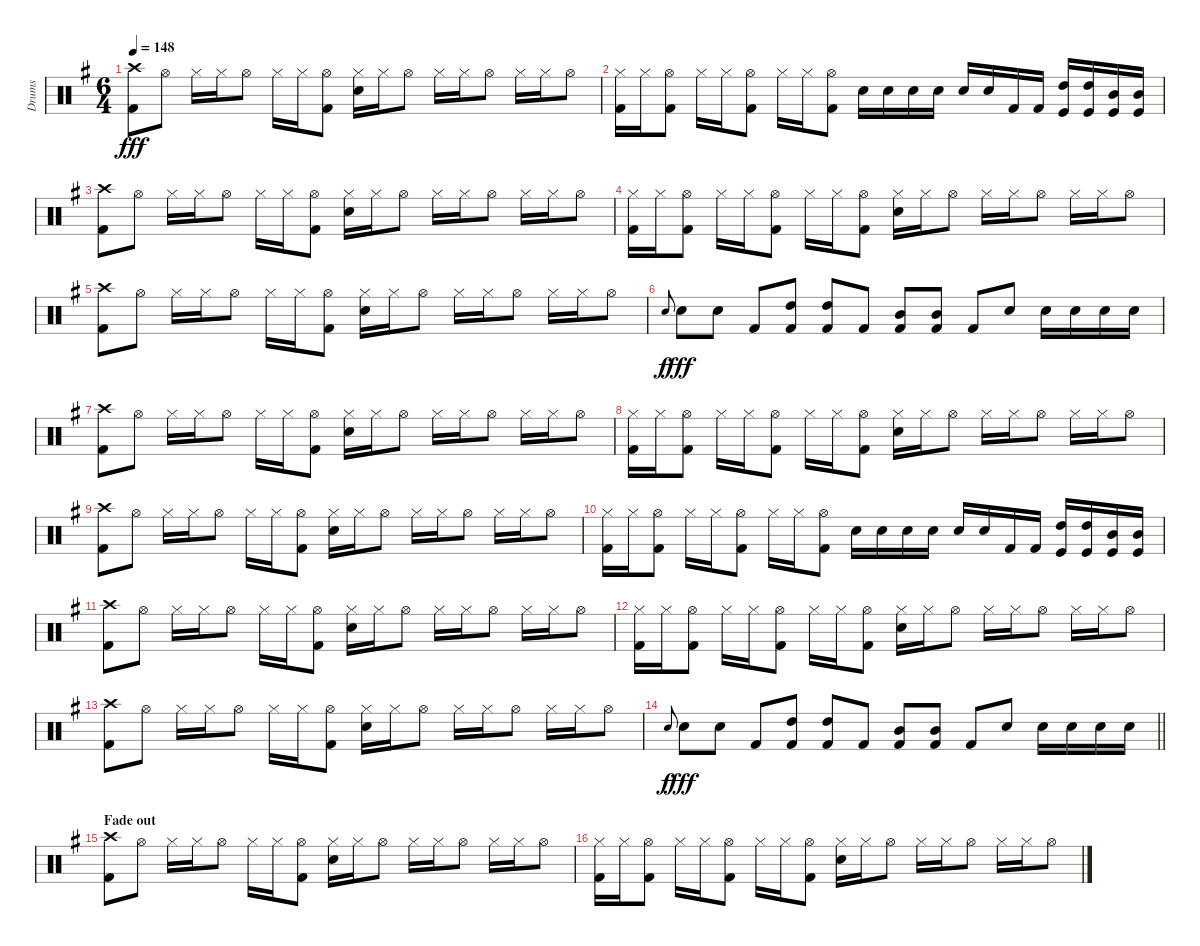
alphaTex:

\track ("Drums" "Drums") {instrument percussion}
\staff {score}
\articulation defaults
\ts (6 4)
\tempo 148
\clef neutral
\ks g
("Crash high (hit)" "Kick (hit) 2").8{dy fff} "Hi-Hat (open)".8 "Hi-Hat (closed)".16 "Hi-Hat (closed)".16 "Hi-Hat (open)".8 "Hi-Hat (closed)".16 "Hi-Hat (closed)".16 ("Hi-Hat (open)" "Kick (hit) 2").8 ("Hi-Hat (closed)" "Electric Snare (hit)").16 "Hi-Hat (closed)".16 "Hi-Hat (open)".8 "Hi-Hat (closed)".16 "Hi-Hat (closed)".16 "Hi-Hat (open)".8 "Hi-Hat (closed)".16 "Hi-Hat (closed)".16 "Hi-Hat (open)".8 |
("Hi-Hat (closed)" "Kick (hit) 2").16 "Hi-Hat (closed)".16 ("Hi-Hat (open)" "Kick (hit) 2").8 "Hi-Hat (closed)".16 "Hi-Hat (closed)".16 ("Hi-Hat (open)" "Kick (hit) 2").8 "Hi-Hat (closed)".16 "Hi-Hat (closed)".16 ("Hi-Hat (open)" "Kick (hit) 2").8 "Electric Snare (hit)".16 "Electric Snare (hit)".16 "Electric Snare (hit)".16 "Electric Snare (hit)".16 "Electric Snare (hit)".16 "Electric Snare (hit)".16 "Kick (hit) 2".16 "Kick (hit) 2".16 ("High Tom (hit)" "Kick (hit)").16 ("High Tom (hit)" "Kick (hit)").16 ("Mid Tom (hit)" "Kick (hit)").16 ("Mid Tom (hit)" "Kick (hit)").16 |
("Crash high (hit)" "Kick (hit) 2").8 "Hi-Hat (open)".8 "Hi-Hat (closed)".16 "Hi-Hat (closed)".16 "Hi-Hat (open)".8 "Hi-Hat (closed)".16 "Hi-Hat (closed)".16 ("Hi-Hat (open)" "Kick (hit) 2").8 ("Hi-Hat (closed)" "Electric Snare (hit)").16 "Hi-Hat (closed)".16 "Hi-Hat (open)".8 "Hi-Hat (closed)".16 "Hi-Hat (closed)".16 "Hi-Hat (open)".8 "Hi-Hat (closed)".16 "Hi-Hat (closed)".16 "Hi-Hat (open)".8 |
("Hi-Hat (closed)" "Kick (hit) 2").16 "Hi-Hat (closed)".16 ("Hi-Hat (open)" "Kick (hit) 2").8 "Hi-Hat (closed)".16 "Hi-Hat (closed)".16 ("Hi-Hat (open)" "Kick (hit) 2").8 "Hi-Hat (closed)".16 "Hi-Hat (closed)".16 ("Hi-Hat (open)" "Kick (hit) 2").8 ("Hi-Hat (closed)" "Electric Snare (hit)").16 "Hi-Hat (closed)".16 "Hi-Hat (open)".8 "Hi-Hat (closed)".16 "Hi-Hat (closed)".16 "Hi-Hat (open)".8 "Hi-Hat (closed)".16 "Hi-Hat (closed)".16 "Hi-Hat (open)".8 |
("Crash high (hit)" "Kick (hit) 2").8 "Hi-Hat (open)".8 "Hi-Hat (closed)".16 "Hi-Hat (closed)".16 "Hi-Hat (open)".8 "Hi-Hat (closed)".16 "Hi-Hat (closed)".16 ("Hi-Hat (open)" "Kick (hit) 2").8 ("Hi-Hat (closed)" "Electric Snare (hit)").16 "Hi-Hat (closed)".16 "Hi-Hat (open)".8 "Hi-Hat (closed)".16 "Hi-Hat (closed)".16 "Hi-Hat (open)".8 "Hi-Hat (closed)".16 "Hi-Hat (closed)".16 "Hi-Hat (open)".8 |
"Electric Snare (hit)".8{gr onbeat dy f} "Electric Snare (hit)".8{dy fff} "Electric Snare (hit)".8 "Kick (hit) 2".8 ("High Tom (hit)" "Kick (hit) 2").8 ("High Tom (hit)" "Kick (hit) 2").8 "Kick (hit) 2".8 ("Mid Tom (hit)" "Kick (hit) 2").8 ("Mid Tom (hit)" "Kick (hit) 2").8 "Kick (hit) 2".8 "Electric Snare (hit)".8 "Electric Snare (hit)".16 "Electric Snare (hit)".16 "Electric Snare (hit)".16 "Electric Snare (hit)".16 |
("Crash high (hit)" "Kick (hit) 2").8 "Hi-Hat (open)".8 "Hi-Hat (closed)".16 "Hi-Hat (closed)".16 "Hi-Hat (open)".8 "Hi-Hat (closed)".16 "Hi-Hat (closed)".16 ("Hi-Hat (open)" "Kick (hit) 2").8 ("Hi-Hat (closed)" "Electric Snare (hit)").16 "Hi-Hat (closed)".16 "Hi-Hat (open)".8 "Hi-Hat (closed)".16 "Hi-Hat (closed)".16 "Hi-Hat (open)".8 "Hi-Hat (closed)".16 "Hi-Hat (closed)".16 "Hi-Hat (open)".8 |
("Hi-Hat (closed)" "Kick (hit) 2").16 "Hi-Hat (closed)".16 ("Hi-Hat (open)" "Kick (hit) 2").8 "Hi-Hat (closed)".16 "Hi-Hat (closed)".16 ("Hi-Hat (open)" "Kick (hit) 2").8 "Hi-Hat (closed)".16 "Hi-Hat (closed)".16 ("Hi-Hat (open)" "Kick (hit) 2").8 ("Hi-Hat (closed)" "Electric Snare (hit)").16 "Hi-Hat (closed)".16 "Hi-Hat (open)".8 "Hi-Hat (closed)".16 "Hi-Hat (closed)".16 "Hi-Hat (open)".8 "Hi-Hat (closed)".16 "Hi-Hat (closed)".16 "Hi-Hat (open)".8 |
("Crash high (hit)" "Kick (hit) 2").8 "Hi-Hat (open)".8 "Hi-Hat (closed)".16 "Hi-Hat (closed)".16 "Hi-Hat (open)".8 "Hi-Hat (closed)".16 "Hi-Hat (closed)".16 ("Hi-Hat (open)" "Kick (hit) 2").8 ("Hi-Hat (closed)" "Electric Snare (hit)").16 "Hi-Hat (closed)".16 "Hi-Hat (open)".8 "Hi-Hat (closed)".16 "Hi-Hat (closed)".16 "Hi-Hat (open)".8 "Hi-Hat (closed)".16 "Hi-Hat (closed)".16 "Hi-Hat (open)".8 |
("Hi-Hat (closed)" "Kick (hit) 2").16 "Hi-Hat (closed)".16 ("Hi-Hat (open)" "Kick (hit) 2").8 "Hi-Hat (closed)".16 "Hi-Hat (closed)".16 ("Hi-Hat (open)" "Kick (hit) 2").8 "Hi-Hat (closed)".16 "Hi-Hat (closed)".16 ("Hi-Hat (open)" "Kick (hit) 2").8 "Electric Snare (hit)".16 "Electric Snare (hit)".16 "Electric Snare (hit)".16 "Electric Snare (hit)".16 "Electric Snare (hit)".16 "Electric Snare (hit)".16 "Kick (hit) 2".16 "Kick (hit) 2".16 ("High Tom (hit)" "Kick (hit)").16 ("High Tom (hit)" "Kick (hit)").16 ("Mid Tom (hit)" "Kick (hit)").16 ("Mid Tom (hit)" "Kick (hit)").16 |
("Crash high (hit)" "Kick (hit) 2").8 "Hi-Hat (open)".8 "Hi-Hat (closed)".16 "Hi-Hat (closed)".16 "Hi-Hat (open)".8 "Hi-Hat (closed)".16 "Hi-Hat (closed)".16 ("Hi-Hat (open)" "Kick (hit) 2").8 ("Hi-Hat (closed)" "Electric Snare (hit)").16 "Hi-Hat (closed)".16 "Hi-Hat (open)".8 "Hi-Hat (closed)".16 "Hi-Hat (closed)".16 "Hi-Hat (open)".8 "Hi-Hat (closed)".16 "Hi-Hat (closed)".16 "Hi-Hat (open)".8 |
("Hi-Hat (closed)" "Kick (hit) 2").16 "Hi-Hat (closed)".16 ("Hi-Hat (open)" "Kick (hit) 2").8 "Hi-Hat (closed)".16 "Hi-Hat (closed)".16 ("Hi-Hat (open)" "Kick (hit) 2").8 "Hi-Hat (closed)".16 "Hi-Hat (closed)".16 ("Hi-Hat (open)" "Kick (hit) 2").8 ("Hi-Hat (closed)" "Electric Snare (hit)").16 "Hi-Hat (closed)".16 "Hi-Hat (open)".8 "Hi-Hat (closed)".16 "Hi-Hat (closed)".16 "Hi-Hat (open)".8 "Hi-Hat (closed)".16 "Hi-Hat (closed)".16 "Hi-Hat (open)".8 |
("Crash high (hit)" "Kick (hit) 2").8 "Hi-Hat (open)".8 "Hi-Hat (closed)".16 "Hi-Hat (closed)".16 "Hi-Hat (open)".8 "Hi-Hat (closed)".16 "Hi-Hat (closed)".16 ("Hi-Hat (open)" "Kick (hit) 2").8 ("Hi-Hat (closed)" "Electric Snare (hit)").16 "Hi-Hat (closed)".16 "Hi-Hat (open)".8 "Hi-Hat (closed)".16 "Hi-Hat (closed)".16 "Hi-Hat (open)".8 "Hi-Hat (closed)".16 "Hi-Hat (closed)".16 "Hi-Hat (open)".8 |
\barLineRight lightlight "Electric Snare (hit)".8{gr onbeat dy f} "Electric Snare (hit)".8{dy fff} "Electric Snare (hit)".8 "Kick (hit) 2".8
("High Tom (hit)" "Kick (hit) 2").8 ("High Tom (hit)" "Kick (hit) 2").8 "Kick (hit) 2".8 ("Mid Tom (hit)" "Kick (hit) 2").8 ("Mid Tom (hit)" "Kick (hit) 2").8 "Kick (hit) 2".8 "Electric Snare (hit)".8 "Electric Snare (hit)".16 "Electric Snare (hit)".16 "Electric Snare (hit)".16 "Electric Snare (hit)".16 |
\section ("" "Fade out")
("Crash high (hit)" "Kick (hit) 2").8 "Hi-Hat (open)".8 "Hi-Hat (closed)".16 "Hi-Hat (closed)".16 "Hi-Hat (open)".8 "Hi-Hat (closed)".16 "Hi-Hat (closed)".16 ("Hi-Hat (open)" "Kick (hit) 2").8 ("Hi-Hat (closed)" "Electric Snare (hit)").16 "Hi-Hat (closed)".16 "Hi-Hat (open)".8 "Hi-Hat (closed)".16 "Hi-Hat (closed)".16 "Hi-Hat (open)".8 "Hi-Hat (closed)".16 "Hi-Hat (closed)".16 "Hi-Hat (open)".8 |
("Hi-Hat (closed)" "Kick (hit) 2").16 "Hi-Hat (closed)".16 ("Hi-Hat (open)" "Kick (hit) 2").8 "Hi-Hat (closed)".16 "Hi-Hat (closed)".16 ("Hi-Hat (open)" "Kick (hit) 2").8 "Hi-Hat (closed)".16 "Hi-Hat (closed)".16 ("Hi-Hat (open)" "Kick (hit) 2").8 ("Hi-Hat (closed)" "Electric Snare (hit)").16 "Hi-Hat (closed)".16 "Hi-Hat (open)".8 "Hi-Hat (closed)".16 "Hi-Hat (closed)".16 "Hi-Hat (open)".8 "Hi-Hat (closed)".16 "Hi-Hat (closed)".16 "Hi-Hat (open)".8
